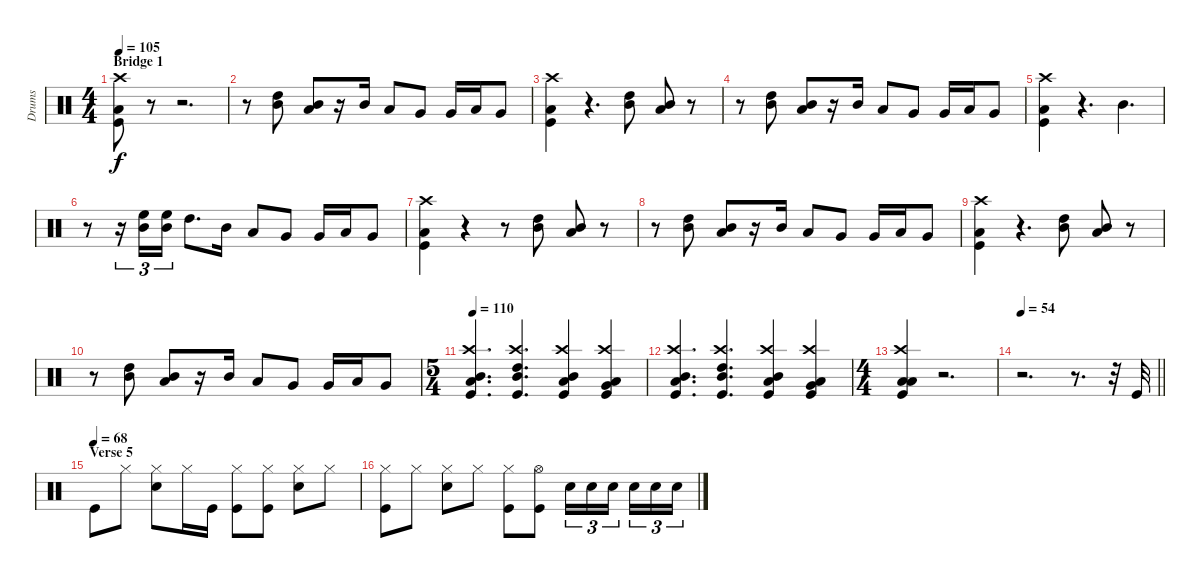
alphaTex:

\track ("Drums" "Drums") {instrument percussion}
\staff {score}
\articulation defaults
\ts (4 4)
\section ("" "Bridge 1")
\tempo 105
\clef neutral
\ks c
("Kick (hit)" "Low Floor Tom (hit)" "Crash high (hit)").8{dy f} r.8 r.2{d} |
r.8 ("Mid Tom (hit)" "High Tom (hit)").8 ("Low Tom (hit)" "Mid Tom (hit)").8 r.16 "Mid Tom (hit)".16 "Low Tom (hit)".8 "Very Low Tom (hit)".8 "Very Low Tom (hit)".16 "Low Tom (hit)".16 "Very Low Tom (hit)".8 |
("Low Floor Tom (hit)" "Kick (hit)" "Crash high (hit)").4 r.4{d} ("Mid Tom (hit)" "High Tom (hit)").8 ("Mid Tom (hit)" "Low Tom (hit)").8 r.8 |
r.8 ("Mid Tom (hit)" "High Tom (hit)").8 ("Low Tom (hit)" "Mid Tom (hit)").8 r.16 "Mid Tom (hit)".16 "Low Tom (hit)".8 "Very Low Tom (hit)".8 "Very Low Tom (hit)".16 "Low Tom (hit)".16 "Very Low Tom (hit)".8 |
("Kick (hit)" "Low Floor Tom (hit)" "Crash high (hit)").4 r.4{d} "Mid Tom (hit)".4{d} |
r.8 r.16{tu (3 2)} ("Mid Tom (hit)" "High Floor Tom (hit)").16{tu (3 2)} ("Mid Tom (hit)" "High Floor Tom (hit)").16{tu (3 2)} "High Tom (hit)".8{d} "Mid Tom (hit)".16 "Low Tom (hit)".8 "Very Low Tom (hit)".8 "Very Low Tom (hit)".16 "Low Tom (hit)".16 "Very Low Tom (hit)".8 |
("Crash high (hit)" "Kick (hit)" "Low Floor Tom (hit)").4 r.4 r.8 ("Mid Tom (hit)" "High Tom (hit)").8 ("Mid Tom (hit)" "Low Tom (hit)").8 r.8 |
r.8 ("Mid Tom (hit)" "High Tom (hit)").8 ("Low Tom (hit)" "Mid Tom (hit)").8 r.16 "Mid Tom (hit)".16 "Low Tom (hit)".8 "Very Low Tom (hit)".8 "Very Low Tom (hit)".16 "Low Tom (hit)".16 "Very Low Tom (hit)".8 |
("Low Floor Tom (hit)" "Kick (hit)" "Crash high (hit)").4 r.4{d} ("High Tom (hit)" "Mid Tom (hit)").8 ("Mid Tom (hit)" "Low Tom (hit)").8 r.8 |
r.8 ("Mid Tom (hit)" "High Tom (hit)").8 ("Low Tom (hit)" "Mid Tom (hit)").8 r.16 "Mid Tom (hit)".16 "Low Tom (hit)".8 "Very Low Tom (hit)".8 "Very Low Tom (hit)".16 "Low Tom (hit)".16 "Very Low Tom (hit)".8 |
\ts (5 4)
\tempo 110
("Kick (hit)" "Crash high (hit)" "Mid Tom (hit)" "Low Tom (hit)").4{d} ("Kick (hit)" "Crash high (hit)" "High Tom (hit)" "Mid Tom (hit)").4{d} ("Kick (hit)" "Crash high (hit)" "Mid Tom (hit)" "Low Tom (hit)").4 ("Kick (hit)" "Crash high (hit)" "Very Low Tom (hit)" "Low Tom (hit)").4 |
("Kick (hit)" "Crash high (hit)" "Mid Tom (hit)" "Low Tom (hit)").4{d} ("Kick (hit)" "Crash high (hit)" "High Tom (hit)" "Mid Tom (hit)").4{d} ("Kick (hit)" "Crash high (hit)" "Mid Tom (hit)" "Low Tom (hit)").4 ("Kick (hit)" "Crash high (hit)" "Low Tom (hit)" "Very Low Tom (hit)").4 |
\ts (4 4)
("Kick (hit)" "Low Floor Tom (hit)" "Crash high (hit)" "Low Tom (hit)").4 r.2{d} |
\tempo 54
\barLineRight lightlight
r.2{d} r.8{d} r.32 "Kick (hit)".32 |
\section ("" "Verse 5")
\tempo (68)
"Kick (hit)".8 "Hi-Hat (closed)".8 ("Hi-Hat (closed)" "Snare (hit) 2").8 "Hi-Hat (closed)".16 "Kick (hit)".16 ("Hi-Hat (closed)" "Kick (hit)").8 ("Hi-Hat (closed)" "Kick (hit)").8 ("Hi-Hat (closed)" "Snare (hit) 2").8 "Hi-Hat (closed)".8 |
("Hi-Hat (closed)" "Kick (hit)").8 "Hi-Hat (closed)".8 ("Hi-Hat (closed)" "Snare (hit) 2").8 "Hi-Hat (closed)".8 ("Hi-Hat (closed)" "Kick (hit)").8 ("Hi-Hat (open)" "Kick (hit)").8 "Snare (hit) 2".16{tu (3 2)} "Snare (hit) 2".16{tu (3 2)} "Snare (hit) 2".16{tu (3 2) beam splitsecondary} "Snare (hit) 2".16{tu (3 2)} "Snare (hit) 2".16{tu (3 2)} "Snare (hit) 2".16{tu (3 2)}
